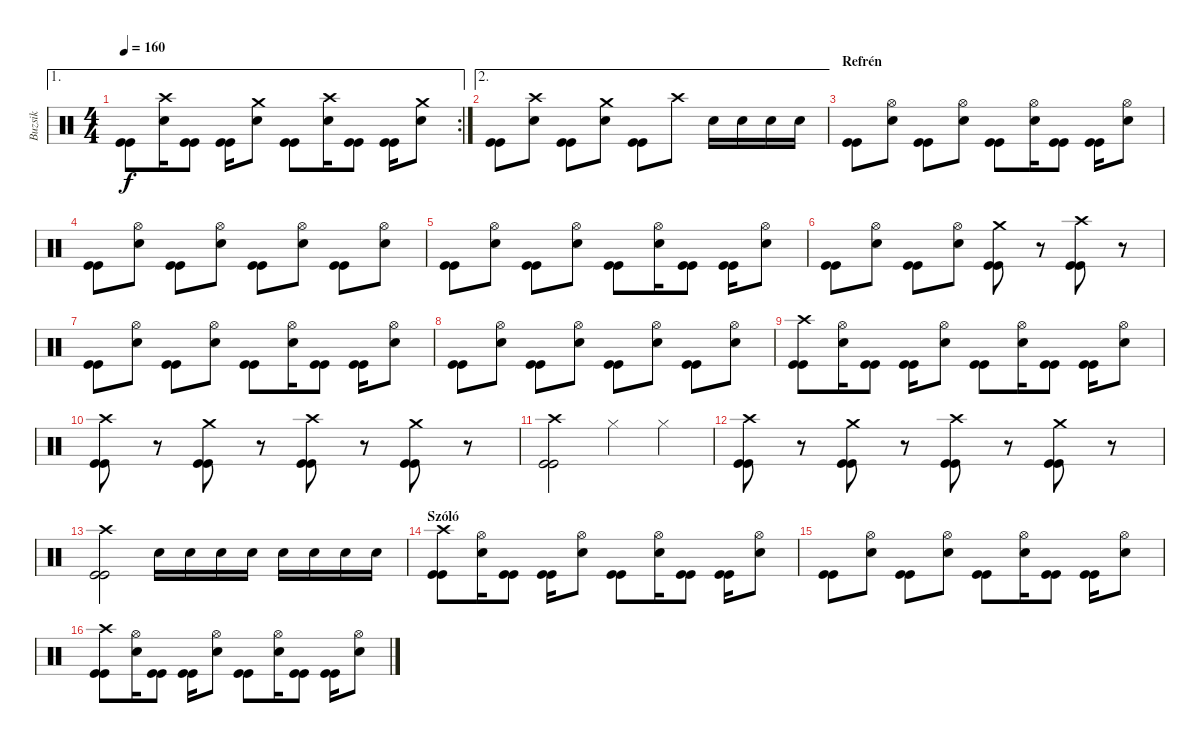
\track ("Buzsik" "Buzsik") {instrument percussion}
\staff {score}
\articulation defaults
\ae 1
\rc 2
\ts (4 4)
\tempo 160
\clef neutral
\ks c
("Kick (hit)" "Kick (hit)").8{dy f} ("Crash high (hit)" "Electric Snare (hit)").16 ("Kick (hit)" "Kick (hit)").8 ("Kick (hit)" "Kick (hit)").16 ("Crash medium (hit)" "Electric Snare (hit)").8 ("Kick (hit)" "Kick (hit)").8 ("Crash high (hit)" "Electric Snare (hit)").16 ("Kick (hit)" "Kick (hit)").8 ("Kick (hit)" "Kick (hit)").16 ("Crash medium (hit)" "Electric Snare (hit)").8 |
\ae 2
("Kick (hit)" "Kick (hit)").8 ("Crash high (hit)" "Electric Snare (hit)").8 ("Kick (hit)" "Kick (hit)").8 ("Crash medium (hit)" "Electric Snare (hit)").8 ("Kick (hit)" "Kick (hit)").8 "Crash high (hit)".8 "Electric Snare (hit)".16 "Electric Snare (hit)".16 "Electric Snare (hit)".16 "Electric Snare (hit)".16 |
\section ("" "Refrén")
("Kick (hit)" "Kick (hit)").8 ("Hi-Hat (open)" "Electric Snare (hit)").8 ("Kick (hit)" "Kick (hit)").8 ("Hi-Hat (open)" "Electric Snare (hit)").8 ("Kick (hit)" "Kick (hit)").8 ("Hi-Hat (open)" "Electric Snare (hit)").16 ("Kick (hit)" "Kick (hit)").8 ("Kick (hit)" "Kick (hit)").16 ("Hi-Hat (open)" "Electric Snare (hit)").8 |
("Kick (hit)" "Kick (hit)").8 ("Hi-Hat (open)" "Electric Snare (hit)").8 ("Kick (hit)" "Kick (hit)").8 ("Hi-Hat (open)" "Electric Snare (hit)").8 ("Kick (hit)" "Kick (hit)").8 ("Hi-Hat (open)" "Electric Snare (hit)").8 ("Kick (hit)" "Kick (hit)").8 ("Hi-Hat (open)" "Electric Snare (hit)").8 |
("Kick (hit)" "Kick (hit)").8 ("Hi-Hat (open)" "Electric Snare (hit)").8 ("Kick (hit)" "Kick (hit)").8 ("Hi-Hat (open)" "Electric Snare (hit)").8 ("Kick (hit)" "Kick (hit)").8 ("Hi-Hat (open)" "Electric Snare (hit)").16 ("Kick (hit)" "Kick (hit)").8 ("Kick (hit)" "Kick (hit)").16 ("Hi-Hat (open)" "Electric Snare (hit)").8 |
("Kick (hit)" "Kick (hit)").8 ("Hi-Hat (open)" "Electric Snare (hit)").8 ("Kick (hit)" "Kick (hit)").8 ("Hi-Hat (open)" "Electric Snare (hit)").8 ("Crash medium (hit)" "Kick (hit)" "Kick (hit)").8 r.8 ("Crash high (hit)" "Kick (hit)" "Kick (hit)").8 r.8 |
("Kick (hit)" "Kick (hit)").8 ("Hi-Hat (open)" "Electric Snare (hit)").8 ("Kick (hit)" "Kick (hit)").8 ("Hi-Hat (open)" "Electric Snare (hit)").8 ("Kick (hit)" "Kick (hit)").8 ("Hi-Hat (open)" "Electric Snare (hit)").16 ("Kick (hit)" "Kick (hit)").8 ("Kick (hit)" "Kick (hit)").16 ("Hi-Hat (open)" "Electric Snare (hit)").8 |
("Kick (hit)" "Kick (hit)").8 ("Hi-Hat (open)" "Electric Snare (hit)").8 ("Kick (hit)" "Kick (hit)").8 ("Hi-Hat (open)" "Electric Snare (hit)").8 ("Kick (hit)" "Kick (hit)").8 ("Hi-Hat (open)" "Electric Snare (hit)").8 ("Kick (hit)" "Kick (hit)").8 ("Hi-Hat (open)" "Electric Snare (hit)").8 |
("Crash high (hit)" "Kick (hit)" "Kick (hit)").8 ("Hi-Hat (open)" "Electric Snare (hit)").16 ("Kick (hit)" "Kick (hit)").8 ("Kick (hit)" "Kick (hit)").16 ("Hi-Hat (open)" "Electric Snare (hit)").8 ("Kick (hit)" "Kick (hit)").8 ("Hi-Hat (open)" "Electric Snare (hit)").16 ("Kick (hit)" "Kick (hit)").8 ("Kick (hit)" "Kick (hit)").16 ("Hi-Hat (open)" "Electric Snare (hit)").8 |
("Crash high (hit)" "Kick (hit)" "Kick (hit)").8 r.8 ("Crash medium (hit)" "Kick (hit)" "Kick (hit)").8 r.8 ("Crash high (hit)" "Kick (hit)" "Kick (hit)").8 r.8 ("Crash medium (hit)" "Kick (hit)" "Kick (hit)").8 r.8 |
("Crash high (hit)" "Kick (hit)" "Kick (hit)").2 "Hi-Hat (closed)".4 "Hi-Hat (closed)".4 |
("Crash high (hit)" "Kick (hit)" "Kick (hit)").8 r.8 ("Crash medium (hit)" "Kick (hit)" "Kick (hit)").8 r.8 ("Crash high (hit)" "Kick (hit)" "Kick (hit)").8 r.8 ("Crash medium (hit)" "Kick (hit)" "Kick (hit)").8 r.8 |
("Crash high (hit)" "Kick (hit)" "Kick (hit)").2 "Electric Snare (hit)".16 "Electric Snare (hit)".16 "Electric Snare (hit)".16 "Electric Snare (hit)".16 "Electric Snare (hit)".16 "Electric Snare (hit)".16 "Electric Snare (hit)".16 "Electric Snare (hit)".16 |
\section ("" "Szóló")
("Crash high (hit)" "Kick (hit)" "Kick (hit)").8 ("Hi-Hat (open)" "Electric Snare (hit)").16 ("Kick (hit)" "Kick (hit)").8 ("Kick (hit)" "Kick (hit)").16 ("Hi-Hat (open)" "Electric Snare (hit)").8 ("Kick (hit)" "Kick (hit)").8 ("Hi-Hat (open)" "Electric Snare (hit)").16 ("Kick (hit)" "Kick (hit)").8 ("Kick (hit)" "Kick (hit)").16 ("Hi-Hat (open)" "Electric Snare (hit)").8 |
("Kick (hit)" "Kick (hit)").8 ("Hi-Hat (open)" "Electric Snare (hit)").8 ("Kick (hit)" "Kick (hit)").8 ("Hi-Hat (open)" "Electric Snare (hit)").8 ("Kick (hit)" "Kick (hit)").8 ("Hi-Hat (open)" "Electric Snare (hit)").16 ("Kick (hit)" "Kick (hit)").8 ("Kick (hit)" "Kick (hit)").16 ("Hi-Hat (open)" "Electric Snare (hit)").8 |
("Crash high (hit)" "Kick (hit)" "Kick (hit)").8 ("Hi-Hat (open)" "Electric Snare (hit)").16 ("Kick (hit)" "Kick (hit)").8 ("Kick (hit)" "Kick (hit)").16 ("Hi-Hat (open)" "Electric Snare (hit)").8 ("Kick (hit)" "Kick (hit)").8 ("Hi-Hat (open)" "Electric Snare (hit)").16 ("Kick (hit)" "Kick (hit)").8 ("Kick (hit)" "Kick (hit)").16 ("Hi-Hat (open)" "Electric Snare (hit)").8
